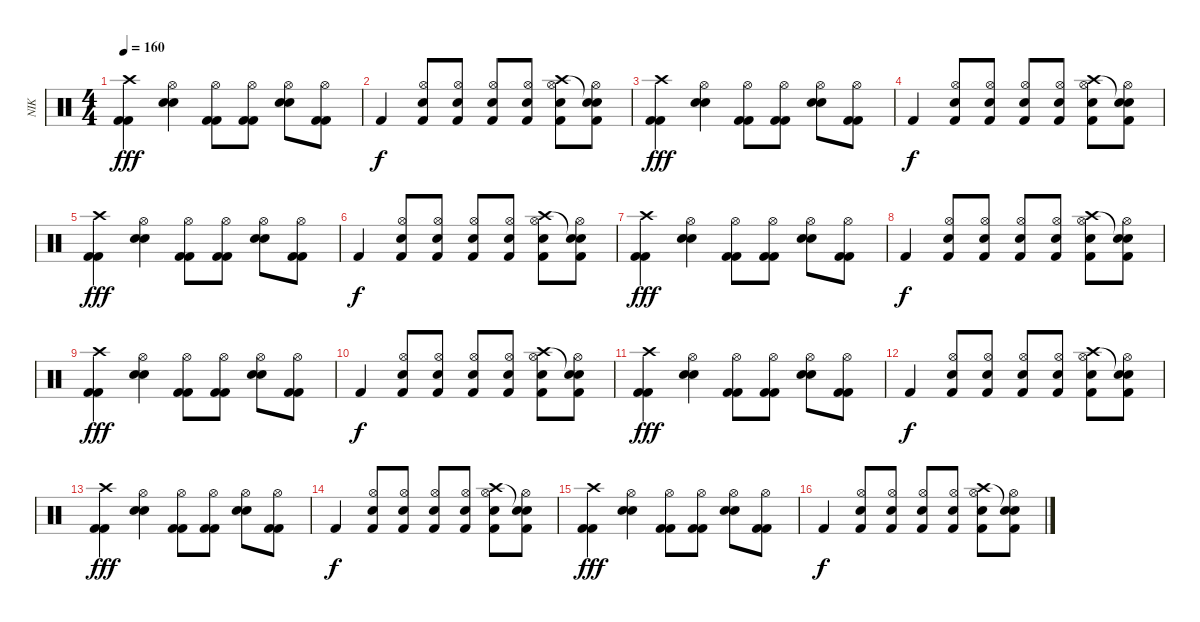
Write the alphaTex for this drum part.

\track ("NIK" "NIK") {instrument percussion}
\staff {score}
\articulation defaults
\ts (4 4)
\tempo 160
\clef neutral
\ks c
("Crash high (hit)" "Kick (hit) 2" "Kick (hit) 2").4{dy fff} ("Hi-Hat (open)" "Electric Snare (hit)" "Electric Snare (hit)").4 ("Hi-Hat (open)" "Kick (hit) 2" "Kick (hit) 2").8 ("Hi-Hat (open)" "Kick (hit) 2" "Kick (hit) 2").8 ("Hi-Hat (open)" "Electric Snare (hit)" "Electric Snare (hit)").8 ("Hi-Hat (open)" "Kick (hit) 2" "Kick (hit) 2").8 |
"Kick (hit) 2".4{dy f} ("Electric Snare (hit)" "Hi-Hat (open)" "Kick (hit) 2").8 ("Electric Snare (hit)" "Hi-Hat (open)" "Kick (hit) 2").8 ("Electric Snare (hit)" "Hi-Hat (open)" "Kick (hit) 2").8 ("Electric Snare (hit)" "Hi-Hat (open)" "Kick (hit) 2").8 ("Electric Snare (hit)" "Hi-Hat (open)" "Kick (hit) 2" "Crash high (hit)").8 ("Electric Snare (hit)" "Hi-Hat (open)" "Kick (hit) 2" "Snare (hit)"{t}).8 |
("Crash high (hit)" "Kick (hit) 2" "Kick (hit) 2").4{dy fff} ("Hi-Hat (open)" "Electric Snare (hit)" "Electric Snare (hit)").4 ("Hi-Hat (open)" "Kick (hit) 2" "Kick (hit) 2").8 ("Hi-Hat (open)" "Kick (hit) 2" "Kick (hit) 2").8 ("Hi-Hat (open)" "Electric Snare (hit)" "Electric Snare (hit)").8 ("Hi-Hat (open)" "Kick (hit) 2" "Kick (hit) 2").8 |
"Kick (hit) 2".4{dy f} ("Electric Snare (hit)" "Hi-Hat (open)" "Kick (hit) 2").8 ("Electric Snare (hit)" "Hi-Hat (open)" "Kick (hit) 2").8 ("Electric Snare (hit)" "Hi-Hat (open)" "Kick (hit) 2").8 ("Electric Snare (hit)" "Hi-Hat (open)" "Kick (hit) 2").8 ("Electric Snare (hit)" "Hi-Hat (open)" "Kick (hit) 2" "Crash high (hit)").8 ("Electric Snare (hit)" "Hi-Hat (open)" "Kick (hit) 2" "Snare (hit)"{t}).8 |
("Crash high (hit)" "Kick (hit) 2" "Kick (hit) 2").4{dy fff} ("Hi-Hat (open)" "Electric Snare (hit)" "Electric Snare (hit)").4 ("Hi-Hat (open)" "Kick (hit) 2" "Kick (hit) 2").8 ("Hi-Hat (open)" "Kick (hit) 2" "Kick (hit) 2").8 ("Hi-Hat (open)" "Electric Snare (hit)" "Electric Snare (hit)").8 ("Hi-Hat (open)" "Kick (hit) 2" "Kick (hit) 2").8 |
"Kick (hit) 2".4{dy f} ("Electric Snare (hit)" "Hi-Hat (open)" "Kick (hit) 2").8 ("Electric Snare (hit)" "Hi-Hat (open)" "Kick (hit) 2").8 ("Electric Snare (hit)" "Hi-Hat (open)" "Kick (hit) 2").8 ("Electric Snare (hit)" "Hi-Hat (open)" "Kick (hit) 2").8 ("Electric Snare (hit)" "Hi-Hat (open)" "Kick (hit) 2" "Crash high (hit)").8 ("Electric Snare (hit)" "Hi-Hat (open)" "Kick (hit) 2" "Snare (hit)"{t}).8 |
("Crash high (hit)" "Kick (hit) 2" "Kick (hit) 2").4{dy fff} ("Hi-Hat (open)" "Electric Snare (hit)" "Electric Snare (hit)").4 ("Hi-Hat (open)" "Kick (hit) 2" "Kick (hit) 2").8 ("Hi-Hat (open)" "Kick (hit) 2" "Kick (hit) 2").8 ("Hi-Hat (open)" "Electric Snare (hit)" "Electric Snare (hit)").8 ("Hi-Hat (open)" "Kick (hit) 2" "Kick (hit) 2").8 |
"Kick (hit) 2".4{dy f} ("Electric Snare (hit)" "Hi-Hat (open)" "Kick (hit) 2").8 ("Electric Snare (hit)" "Hi-Hat (open)" "Kick (hit) 2").8 ("Electric Snare (hit)" "Hi-Hat (open)" "Kick (hit) 2").8 ("Electric Snare (hit)" "Hi-Hat (open)" "Kick (hit) 2").8 ("Electric Snare (hit)" "Hi-Hat (open)" "Kick (hit) 2" "Crash high (hit)").8 ("Electric Snare (hit)" "Hi-Hat (open)" "Kick (hit) 2" "Snare (hit)"{t}).8 |
("Crash high (hit)" "Kick (hit) 2" "Kick (hit) 2").4{dy fff} ("Hi-Hat (open)" "Electric Snare (hit)" "Electric Snare (hit)").4 ("Hi-Hat (open)" "Kick (hit) 2" "Kick (hit) 2").8 ("Hi-Hat (open)" "Kick (hit) 2" "Kick (hit) 2").8 ("Hi-Hat (open)" "Electric Snare (hit)" "Electric Snare (hit)").8 ("Hi-Hat (open)" "Kick (hit) 2" "Kick (hit) 2").8 |
"Kick (hit) 2".4{dy f} ("Electric Snare (hit)" "Hi-Hat (open)" "Kick (hit) 2").8 ("Electric Snare (hit)" "Hi-Hat (open)" "Kick (hit) 2").8 ("Electric Snare (hit)" "Hi-Hat (open)" "Kick (hit) 2").8 ("Electric Snare (hit)" "Hi-Hat (open)" "Kick (hit) 2").8 ("Electric Snare (hit)" "Hi-Hat (open)" "Kick (hit) 2" "Crash high (hit)").8 ("Electric Snare (hit)" "Hi-Hat (open)" "Kick (hit) 2" "Snare (hit)"{t}).8 |
("Crash high (hit)" "Kick (hit) 2" "Kick (hit) 2").4{dy fff} ("Hi-Hat (open)" "Electric Snare (hit)" "Electric Snare (hit)").4 ("Hi-Hat (open)" "Kick (hit) 2" "Kick (hit) 2").8 ("Hi-Hat (open)" "Kick (hit) 2" "Kick (hit) 2").8 ("Hi-Hat (open)" "Electric Snare (hit)" "Electric Snare (hit)").8 ("Hi-Hat (open)" "Kick (hit) 2" "Kick (hit) 2").8 |
"Kick (hit) 2".4{dy f} ("Electric Snare (hit)" "Hi-Hat (open)" "Kick (hit) 2").8 ("Electric Snare (hit)" "Hi-Hat (open)" "Kick (hit) 2").8 ("Electric Snare (hit)" "Hi-Hat (open)" "Kick (hit) 2").8 ("Electric Snare (hit)" "Hi-Hat (open)" "Kick (hit) 2").8 ("Electric Snare (hit)" "Hi-Hat (open)" "Kick (hit) 2" "Crash high (hit)").8 ("Electric Snare (hit)" "Hi-Hat (open)" "Kick (hit) 2" "Snare (hit)"{t}).8 |
("Crash high (hit)" "Kick (hit) 2" "Kick (hit) 2").4{dy fff} ("Hi-Hat (open)" "Electric Snare (hit)" "Electric Snare (hit)").4 ("Hi-Hat (open)" "Kick (hit) 2" "Kick (hit) 2").8 ("Hi-Hat (open)" "Kick (hit) 2" "Kick (hit) 2").8 ("Hi-Hat (open)" "Electric Snare (hit)" "Electric Snare (hit)").8 ("Hi-Hat (open)" "Kick (hit) 2" "Kick (hit) 2").8 |
"Kick (hit) 2".4{dy f} ("Electric Snare (hit)" "Hi-Hat (open)" "Kick (hit) 2").8 ("Electric Snare (hit)" "Hi-Hat (open)" "Kick (hit) 2").8 ("Electric Snare (hit)" "Hi-Hat (open)" "Kick (hit) 2").8 ("Electric Snare (hit)" "Hi-Hat (open)" "Kick (hit) 2").8 ("Electric Snare (hit)" "Hi-Hat (open)" "Kick (hit) 2" "Crash high (hit)").8 ("Electric Snare (hit)" "Hi-Hat (open)" "Kick (hit) 2" "Snare (hit)"{t}).8 |
("Crash high (hit)" "Kick (hit) 2" "Kick (hit) 2").4{dy fff} ("Hi-Hat (open)" "Electric Snare (hit)" "Electric Snare (hit)").4 ("Hi-Hat (open)" "Kick (hit) 2" "Kick (hit) 2").8 ("Hi-Hat (open)" "Kick (hit) 2" "Kick (hit) 2").8 ("Hi-Hat (open)" "Electric Snare (hit)" "Electric Snare (hit)").8 ("Hi-Hat (open)" "Kick (hit) 2" "Kick (hit) 2").8 |
"Kick (hit) 2".4{dy f} ("Electric Snare (hit)" "Hi-Hat (open)" "Kick (hit) 2").8 ("Electric Snare (hit)" "Hi-Hat (open)" "Kick (hit) 2").8 ("Electric Snare (hit)" "Hi-Hat (open)" "Kick (hit) 2").8 ("Electric Snare (hit)" "Hi-Hat (open)" "Kick (hit) 2").8 ("Electric Snare (hit)" "Hi-Hat (open)" "Kick (hit) 2" "Crash high (hit)").8 ("Electric Snare (hit)" "Hi-Hat (open)" "Kick (hit) 2" "Snare (hit)"{t}).8
